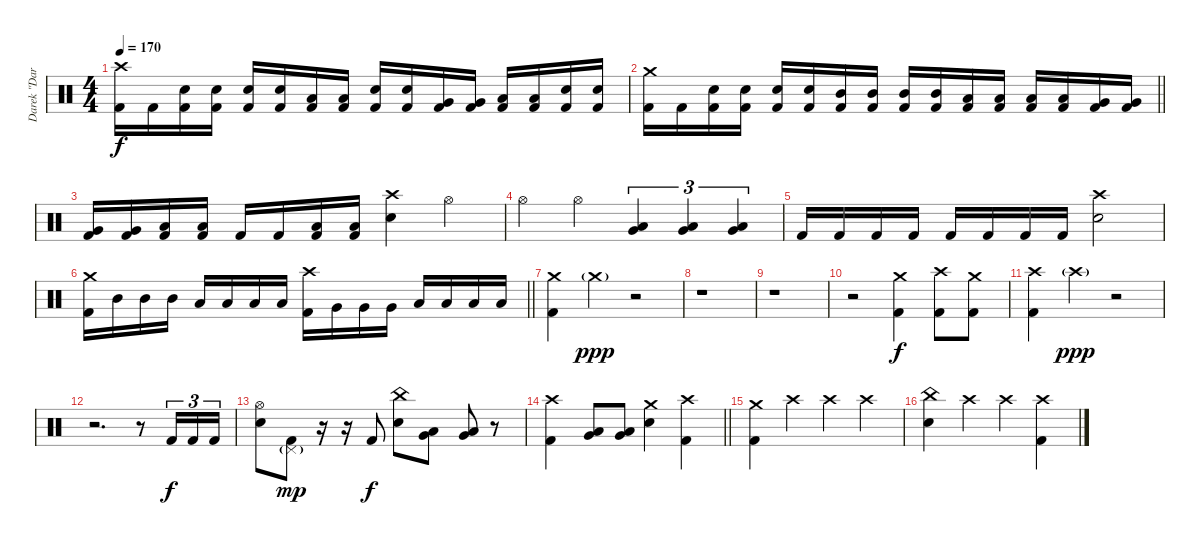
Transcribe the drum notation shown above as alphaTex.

\track ("Darek \"Daray\" Brzozowski " "Darek \"Dar") {instrument percussion}
\staff {score}
\articulation defaults
\ts (4 4)
\tempo 170
\clef neutral
\ks c
("Crash high (hit)" "Kick (hit) 2").16{dy f} "Kick (hit) 2".16 ("Electric Snare (hit)" "Kick (hit) 2").16 ("Electric Snare (hit)" "Kick (hit) 2").16 ("Electric Snare (hit)" "Kick (hit) 2").16 ("Electric Snare (hit)" "Kick (hit) 2").16 ("Low Tom (hit)" "Kick (hit) 2").16 ("Low Tom (hit)" "Kick (hit) 2").16 ("Electric Snare (hit)" "Kick (hit) 2").16 ("Electric Snare (hit)" "Kick (hit) 2").16 ("Very Low Tom (hit)" "Kick (hit) 2").16 ("Very Low Tom (hit)" "Kick (hit) 2").16 ("Low Floor Tom (hit)" "Kick (hit) 2").16 ("Low Floor Tom (hit)" "Kick (hit) 2").16 ("Electric Snare (hit)" "Kick (hit) 2").16 ("Electric Snare (hit)" "Kick (hit) 2").16 |
\barLineRight lightlight
("Crash medium (hit)" "Kick (hit) 2").16 "Kick (hit) 2".16 ("Electric Snare (hit)" "Kick (hit) 2").16 ("Electric Snare (hit)" "Kick (hit) 2").16 ("Electric Snare (hit)" "Kick (hit) 2").16 ("Electric Snare (hit)" "Kick (hit) 2").16 ("Mid Tom (hit)" "Kick (hit) 2").16 ("Mid Tom (hit)" "Kick (hit) 2").16 ("Mid Tom (hit)" "Kick (hit) 2").16 ("Mid Tom (hit)" "Kick (hit) 2").16 ("Low Tom (hit)" "Kick (hit) 2").16 ("Low Tom (hit)" "Kick (hit) 2").16 ("Low Tom (hit)" "Kick (hit) 2").16 ("Low Tom (hit)" "Kick (hit) 2").16 ("Very Low Tom (hit)" "Kick (hit) 2").16 ("Very Low Tom (hit)" "Kick (hit) 2").16 |
("Very Low Tom (hit)" "Kick (hit) 2").16 ("Very Low Tom (hit)" "Kick (hit) 2").16 ("Low Floor Tom (hit)" "Kick (hit) 2").16 ("Low Floor Tom (hit)" "Kick (hit) 2").16 "Kick (hit) 2".16 "Kick (hit) 2".16 ("Low Floor Tom (hit)" "Kick (hit) 2").16 ("Low Floor Tom (hit)" "Kick (hit) 2").16 ("Crash high (hit)" "Electric Snare (hit)").4 "Hi-Hat (open)".4 |
"Hi-Hat (open)".4 "Hi-Hat (open)".4 ("Very Low Tom (hit)" "Low Floor Tom (hit)").4{tu (3 2)} ("Very Low Tom (hit)" "Low Floor Tom (hit)").4{tu (3 2)} ("Very Low Tom (hit)" "Low Floor Tom (hit)").4{tu (3 2)} |
"Kick (hit) 2".16 "Kick (hit) 2".16 "Kick (hit) 2".16 "Kick (hit) 2".16 "Kick (hit) 2".16 "Kick (hit) 2".16 "Kick (hit) 2".16 "Kick (hit) 2".16 ("Crash high (hit)" "Electric Snare (hit)").2 |
\barLineRight lightlight
("Crash medium (hit)" "Kick (hit) 2").16 "Mid Tom (hit)".16 "Mid Tom (hit)".16 "Mid Tom (hit)".16 "Low Tom (hit)".16 "Low Tom (hit)".16 "Low Tom (hit)".16 "Low Tom (hit)".16 ("Crash high (hit)" "Kick (hit) 2").16 "Very Low Tom (hit)".16 "Very Low Tom (hit)".16 "Very Low Tom (hit)".16 "Low Floor Tom (hit)".16 "Low Floor Tom (hit)".16 "Low Floor Tom (hit)".16 "Low Floor Tom (hit)".16 |
("Crash medium (hit)" "Kick (hit) 2").4 "Crash medium (hit)"{g}.4{dy ppp} r.2 |
r.1 |
r.1 |
r.2 ("Crash medium (hit)" "Kick (hit) 2").4{dy f} ("Crash high (hit)" "Kick (hit) 2").8 ("Crash medium (hit)" "Kick (hit) 2").8 |
("Crash high (hit)" "Kick (hit) 2").4 "Crash high (hit)"{g}.4{dy ppp} r.2 |
r.2{d} r.8 "Kick (hit) 2".16{tu (3 2) dy f} "Kick (hit) 2".16{tu (3 2)} "Kick (hit) 2".16{tu (3 2)} |
("Hi-Hat (open)" "Electric Snare (hit)").8 ("Pedal Hi-Hat (hit)"{g} "Kick (hit) 2").8{dy mp} r.16 r.16 "Kick (hit) 2".8{dy f} ("China (hit)" "Electric Snare (hit)").8 ("Low Tom (hit)" "Very Low Tom (hit)").8 ("Very Low Tom (hit)" "Low Floor Tom (hit)").8 r.8 |
\barLineRight lightlight
("Crash high (hit)" "Kick (hit) 2").4 ("Very Low Tom (hit)" "Low Floor Tom (hit)").8 ("Very Low Tom (hit)" "Low Floor Tom (hit)").8 ("Crash medium (hit)" "Electric Snare (hit)").4 ("Crash high (hit)" "Kick (hit) 2").4 |
("Crash medium (hit)" "Kick (hit) 2").4 "Crash high (hit)".4 "Crash high (hit)".4 "Crash high (hit)".4 |
("China (hit)" "Electric Snare (hit)").4 "Crash high (hit)".4 "Crash high (hit)".4 ("Crash high (hit)" "Kick (hit) 2").4
